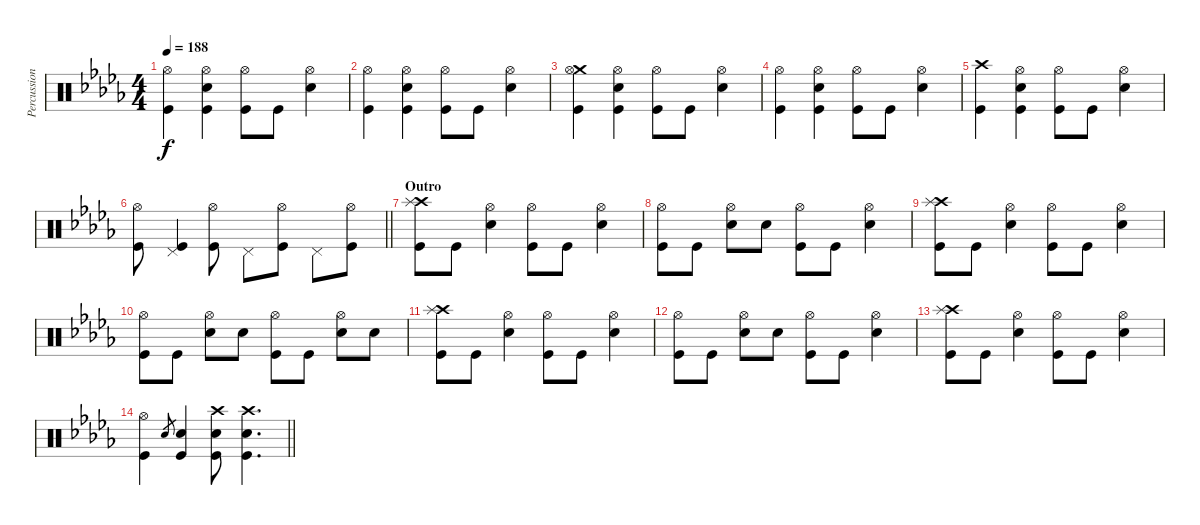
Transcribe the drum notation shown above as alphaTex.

\track ("Percussion" "Percussion") {instrument percussion}
\staff {score}
\articulation defaults
\ts (4 4)
\tempo 188
\clef neutral
\ks db
("Hi-Hat (open)" "Kick (hit)").4{dy f} ("Hi-Hat (open)" "Electric Snare (hit)" "Kick (hit)").4 ("Hi-Hat (open)" "Kick (hit)").8 "Kick (hit)".8 ("Hi-Hat (open)" "Electric Snare (hit)").4 |
("Hi-Hat (open)" "Kick (hit)").4 ("Hi-Hat (open)" "Electric Snare (hit)" "Kick (hit)").4 ("Hi-Hat (open)" "Kick (hit)").8 "Kick (hit)".8 ("Hi-Hat (open)" "Electric Snare (hit)").4 |
("Crash medium (hit)" "Hi-Hat (open)" "Kick (hit)").4 ("Hi-Hat (open)" "Electric Snare (hit)" "Kick (hit)").4 ("Hi-Hat (open)" "Kick (hit)").8 "Kick (hit)".8 ("Hi-Hat (open)" "Electric Snare (hit)").4 |
("Hi-Hat (open)" "Kick (hit)").4 ("Hi-Hat (open)" "Electric Snare (hit)" "Kick (hit)").4 ("Hi-Hat (open)" "Kick (hit)").8 "Kick (hit)".8 ("Hi-Hat (open)" "Electric Snare (hit)").4 |
("Crash high (hit)" "Kick (hit)").4 ("Hi-Hat (open)" "Electric Snare (hit)" "Kick (hit)").4 ("Hi-Hat (open)" "Kick (hit)").8 "Kick (hit)".8 ("Hi-Hat (open)" "Electric Snare (hit)").4 |
\barLineRight lightlight
("Hi-Hat (open)" "Kick (hit)").8 ("Pedal Hi-Hat (hit)" "Kick (hit)").4 ("Hi-Hat (open)" "Kick (hit)").8 "Pedal Hi-Hat (hit)".8 ("Hi-Hat (open)" "Kick (hit)").8 "Pedal Hi-Hat (hit)".8 ("Hi-Hat (open)" "Kick (hit)").8 |
\section ("" "Outro")
("Crash high (hit)" "Splash (hit)" "Kick (hit)").8 "Kick (hit)".8 ("Hi-Hat (open)" "Electric Snare (hit)").4 ("Hi-Hat (open)" "Kick (hit)").8 "Kick (hit)".8 ("Hi-Hat (open)" "Electric Snare (hit)").4 |
("Hi-Hat (open)" "Kick (hit)").8 "Kick (hit)".8 ("Hi-Hat (open)" "Electric Snare (hit)").8 "Electric Snare (hit)".8 ("Hi-Hat (open)" "Kick (hit)").8 "Kick (hit)".8 ("Hi-Hat (open)" "Electric Snare (hit)").4 |
("Crash high (hit)" "Splash (hit)" "Kick (hit)").8 "Kick (hit)".8 ("Hi-Hat (open)" "Electric Snare (hit)").4 ("Hi-Hat (open)" "Kick (hit)").8 "Kick (hit)".8 ("Hi-Hat (open)" "Electric Snare (hit)").4 |
("Hi-Hat (open)" "Kick (hit)").8 "Kick (hit)".8 ("Hi-Hat (open)" "Electric Snare (hit)").8 "Electric Snare (hit)".8 ("Hi-Hat (open)" "Kick (hit)").8 "Kick (hit)".8 ("Hi-Hat (open)" "Electric Snare (hit)").8 "Electric Snare (hit)".8 |
("Crash high (hit)" "Splash (hit)" "Kick (hit)").8 "Kick (hit)".8 ("Hi-Hat (open)" "Electric Snare (hit)").4 ("Hi-Hat (open)" "Kick (hit)").8 "Kick (hit)".8 ("Hi-Hat (open)" "Electric Snare (hit)").4 |
("Hi-Hat (open)" "Kick (hit)").8 "Kick (hit)".8 ("Hi-Hat (open)" "Electric Snare (hit)").8 "Electric Snare (hit)".8 ("Hi-Hat (open)" "Kick (hit)").8 "Kick (hit)".8 ("Hi-Hat (open)" "Electric Snare (hit)").4 |
("Crash high (hit)" "Splash (hit)" "Kick (hit)").8 "Kick (hit)".8 ("Hi-Hat (open)" "Electric Snare (hit)").4 ("Hi-Hat (open)" "Kick (hit)").8 "Kick (hit)".8 ("Hi-Hat (open)" "Electric Snare (hit)").4 |
\barLineRight lightlight
("Hi-Hat (open)" "Kick (hit)").4 "Electric Snare (hit)".8{gr} ("Electric Snare (hit)" "Kick (hit)").4 ("Crash high (hit)" "Electric Snare (hit)" "Kick (hit)").8 ("Crash high (hit)" "Electric Snare (hit)" "Kick (hit)").4{d}
